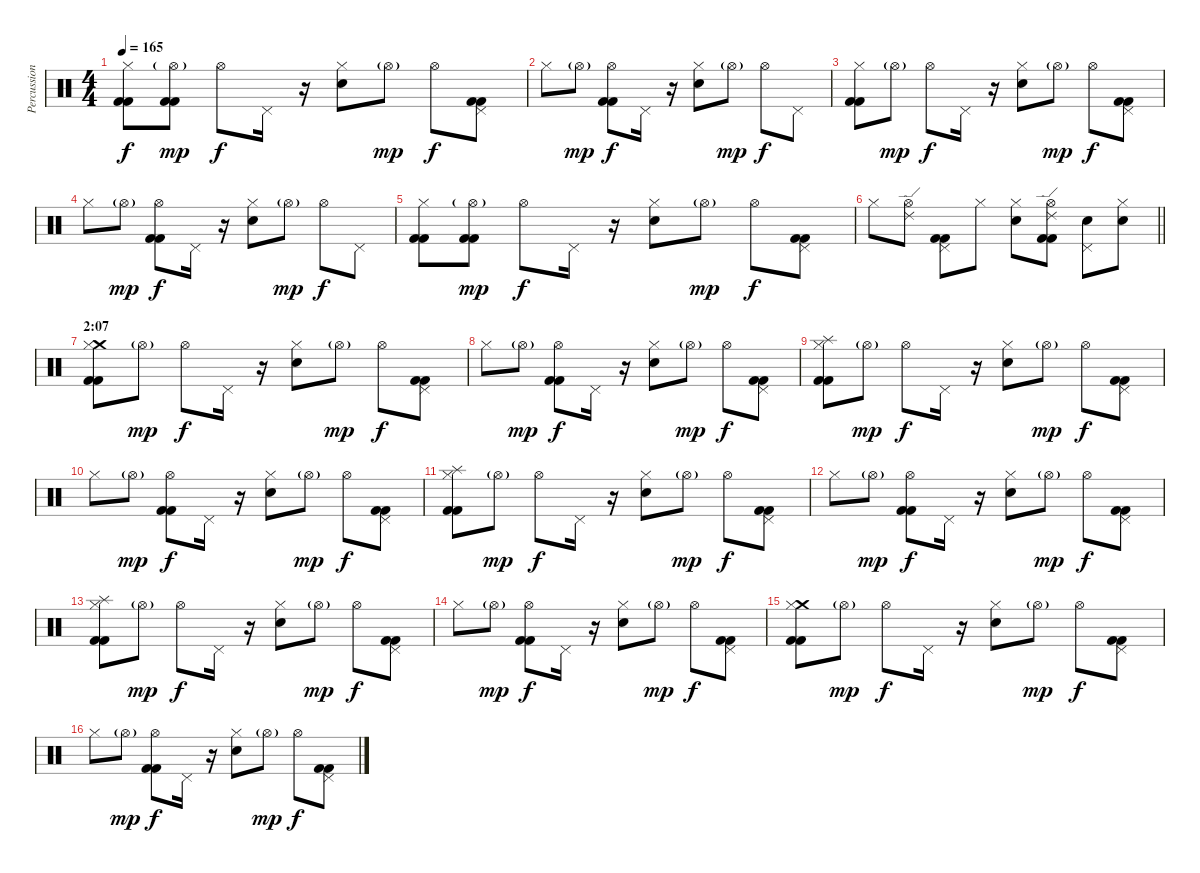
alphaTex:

\track ("Percussion" "Percussion") {instrument percussion}
\staff {score}
\articulation defaults
\ts (4 4)
\tempo 165
\clef neutral
\ks c
("Hi-Hat (closed)" "Kick (hit) 2" "Kick (hit) 2").8{dy f} ("Hi-Hat (open)"{g} "Kick (hit) 2" "Kick (hit) 2").8{dy mp} "Hi-Hat (open)".8{dy f} "Pedal Hi-Hat (hit)".16 r.16 ("Hi-Hat (closed)" "Electric Snare (hit)").8 "Hi-Hat (open)"{g}.8{dy mp} "Hi-Hat (open)".8{dy f} ("Pedal Hi-Hat (hit)" "Kick (hit) 2" "Kick (hit) 2").8 |
"Hi-Hat (closed)".8 "Hi-Hat (open)"{g}.8{dy mp} ("Hi-Hat (open)" "Kick (hit) 2" "Kick (hit) 2").8{dy f} "Pedal Hi-Hat (hit)".16 r.16 ("Hi-Hat (closed)" "Electric Snare (hit)").8 "Hi-Hat (open)"{g}.8{dy mp} "Hi-Hat (open)".8{dy f} "Pedal Hi-Hat (hit)".8 |
("Hi-Hat (closed)" "Kick (hit) 2" "Kick (hit) 2").8 "Hi-Hat (open)"{g}.8{dy mp} "Hi-Hat (open)".8{dy f} "Pedal Hi-Hat (hit)".16 r.16 ("Hi-Hat (closed)" "Electric Snare (hit)").8 "Hi-Hat (open)"{g}.8{dy mp} "Hi-Hat (open)".8{dy f} ("Pedal Hi-Hat (hit)" "Kick (hit) 2" "Kick (hit) 2").8 |
"Hi-Hat (closed)".8 "Hi-Hat (open)"{g}.8{dy mp} ("Hi-Hat (open)" "Kick (hit) 2" "Kick (hit) 2").8{dy f} "Pedal Hi-Hat (hit)".16 r.16 ("Hi-Hat (closed)" "Electric Snare (hit)").8 "Hi-Hat (open)"{g}.8{dy mp} "Hi-Hat (open)".8{dy f} "Pedal Hi-Hat (hit)".8 |
("Hi-Hat (closed)" "Kick (hit) 2" "Kick (hit) 2").8 ("Hi-Hat (open)"{g} "Kick (hit) 2" "Kick (hit) 2").8{dy mp} "Hi-Hat (open)".8{dy f} "Pedal Hi-Hat (hit)".16 r.16 ("Hi-Hat (closed)" "Electric Snare (hit)").8 "Hi-Hat (open)"{g}.8{dy mp} "Hi-Hat (open)".8{dy f} ("Pedal Hi-Hat (hit)" "Kick (hit) 2" "Kick (hit) 2").8 |
\barLineRight lightlight "Hi-Hat (closed)".8
("Ride (edge) 2" "Hi-Hat (open)").8 ("Pedal Hi-Hat (hit)" "Kick (hit) 2" "Kick (hit) 2").8 "Hi-Hat (closed)".8 ("Hi-Hat (closed)" "Electric Snare (hit)").8 ("Ride (edge) 2" "Hi-Hat (open)" "Kick (hit) 2" "Kick (hit) 2").8 ("Pedal Hi-Hat (hit)" "Electric Snare (hit)").8 ("Hi-Hat (closed)" "Electric Snare (hit)").8 |
\section ("" "2:07")
("Crash medium (hit)" "Hi-Hat (closed)" "Kick (hit) 2" "Kick (hit) 2").8 "Hi-Hat (open)"{g}.8{dy mp} "Hi-Hat (open)".8{dy f} "Pedal Hi-Hat (hit)".16 r.16 ("Hi-Hat (closed)" "Electric Snare (hit)").8 "Hi-Hat (open)"{g}.8{dy mp} "Hi-Hat (open)".8{dy f} ("Pedal Hi-Hat (hit)" "Kick (hit) 2" "Kick (hit) 2").8 |
"Hi-Hat (closed)".8 "Hi-Hat (open)"{g}.8{dy mp} ("Hi-Hat (open)" "Kick (hit) 2" "Kick (hit) 2").8{dy f} "Pedal Hi-Hat (hit)".16 r.16 ("Hi-Hat (closed)" "Electric Snare (hit)").8 "Hi-Hat (open)"{g}.8{dy mp} "Hi-Hat (open)".8{dy f} ("Pedal Hi-Hat (hit)" "Kick (hit) 2" "Kick (hit) 2").8 |
("Splash (hit)" "Hi-Hat (closed)" "Kick (hit) 2" "Kick (hit) 2").8 "Hi-Hat (open)"{g}.8{dy mp} "Hi-Hat (open)".8{dy f} "Pedal Hi-Hat (hit)".16 r.16 ("Hi-Hat (closed)" "Electric Snare (hit)").8 "Hi-Hat (open)"{g}.8{dy mp} "Hi-Hat (open)".8{dy f} ("Pedal Hi-Hat (hit)" "Kick (hit) 2" "Kick (hit) 2").8 |
"Hi-Hat (closed)".8 "Hi-Hat (open)"{g}.8{dy mp} ("Hi-Hat (open)" "Kick (hit) 2" "Kick (hit) 2").8{dy f} "Pedal Hi-Hat (hit)".16 r.16 ("Hi-Hat (closed)" "Electric Snare (hit)").8 "Hi-Hat (open)"{g}.8{dy mp} "Hi-Hat (open)".8{dy f} ("Pedal Hi-Hat (hit)" "Kick (hit) 2" "Kick (hit) 2").8 |
("Splash (hit)" "Hi-Hat (closed)" "Kick (hit) 2" "Kick (hit) 2").8 "Hi-Hat (open)"{g}.8{dy mp} "Hi-Hat (open)".8{dy f} "Pedal Hi-Hat (hit)".16 r.16 ("Hi-Hat (closed)" "Electric Snare (hit)").8 "Hi-Hat (open)"{g}.8{dy mp} "Hi-Hat (open)".8{dy f} ("Pedal Hi-Hat (hit)" "Kick (hit) 2" "Kick (hit) 2").8 |
"Hi-Hat (closed)".8 "Hi-Hat (open)"{g}.8{dy mp} ("Hi-Hat (open)" "Kick (hit) 2" "Kick (hit) 2").8{dy f} "Pedal Hi-Hat (hit)".16 r.16 ("Hi-Hat (closed)" "Electric Snare (hit)").8 "Hi-Hat (open)"{g}.8{dy mp} "Hi-Hat (open)".8{dy f} ("Pedal Hi-Hat (hit)" "Kick (hit) 2" "Kick (hit) 2").8 |
("Splash (hit)" "Hi-Hat (closed)" "Kick (hit) 2" "Kick (hit) 2").8 "Hi-Hat (open)"{g}.8{dy mp} "Hi-Hat (open)".8{dy f} "Pedal Hi-Hat (hit)".16 r.16 ("Hi-Hat (closed)" "Electric Snare (hit)").8 "Hi-Hat (open)"{g}.8{dy mp} "Hi-Hat (open)".8{dy f} ("Pedal Hi-Hat (hit)" "Kick (hit) 2" "Kick (hit) 2").8 |
"Hi-Hat (closed)".8 "Hi-Hat (open)"{g}.8{dy mp} ("Hi-Hat (open)" "Kick (hit) 2" "Kick (hit) 2").8{dy f} "Pedal Hi-Hat (hit)".16 r.16 ("Hi-Hat (closed)" "Electric Snare (hit)").8 "Hi-Hat (open)"{g}.8{dy mp} "Hi-Hat (open)".8{dy f} ("Pedal Hi-Hat (hit)" "Kick (hit) 2" "Kick (hit) 2").8 |
("Crash medium (hit)" "Hi-Hat (closed)" "Kick (hit) 2" "Kick (hit) 2").8 "Hi-Hat (open)"{g}.8{dy mp} "Hi-Hat (open)".8{dy f} "Pedal Hi-Hat (hit)".16 r.16 ("Hi-Hat (closed)" "Electric Snare (hit)").8 "Hi-Hat (open)"{g}.8{dy mp} "Hi-Hat (open)".8{dy f} ("Pedal Hi-Hat (hit)" "Kick (hit) 2" "Kick (hit) 2").8 |
"Hi-Hat (closed)".8 "Hi-Hat (open)"{g}.8{dy mp} ("Hi-Hat (open)" "Kick (hit) 2" "Kick (hit) 2").8{dy f} "Pedal Hi-Hat (hit)".16 r.16 ("Hi-Hat (closed)" "Electric Snare (hit)").8 "Hi-Hat (open)"{g}.8{dy mp} "Hi-Hat (open)".8{dy f} ("Pedal Hi-Hat (hit)" "Kick (hit) 2" "Kick (hit) 2").8
